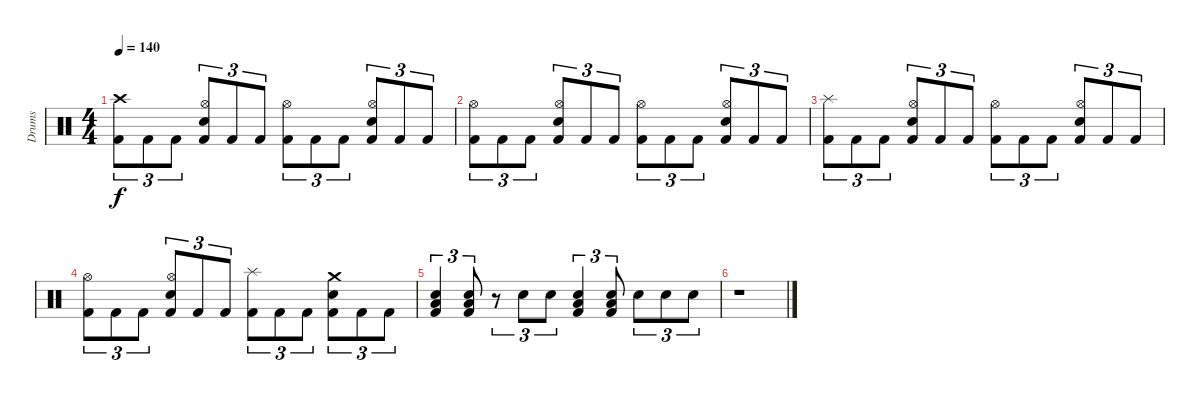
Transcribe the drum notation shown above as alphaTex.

\track ("Drums" "Drums") {instrument percussion}
\staff {score}
\articulation defaults
\ts (4 4)
\tempo 140
\clef neutral
\ks c
("Crash high (hit)" "Kick (hit) 2").8{tu (3 2) dy f} "Kick (hit) 2".8{tu (3 2)} "Kick (hit) 2".8{tu (3 2)} ("Hi-Hat (open)" "Electric Snare (hit)" "Kick (hit) 2").8{tu (3 2)} "Kick (hit) 2".8{tu (3 2)} "Kick (hit) 2".8{tu (3 2)} ("Hi-Hat (open)" "Kick (hit) 2").8{tu (3 2)} "Kick (hit) 2".8{tu (3 2)} "Kick (hit) 2".8{tu (3 2)} ("Hi-Hat (open)" "Electric Snare (hit)" "Kick (hit) 2").8{tu (3 2)} "Kick (hit) 2".8{tu (3 2)} "Kick (hit) 2".8{tu (3 2)} |
("Hi-Hat (open)" "Kick (hit) 2").8{tu (3 2)} "Kick (hit) 2".8{tu (3 2)} "Kick (hit) 2".8{tu (3 2)} ("Hi-Hat (open)" "Electric Snare (hit)" "Kick (hit) 2").8{tu (3 2)} "Kick (hit) 2".8{tu (3 2)} "Kick (hit) 2".8{tu (3 2)} ("Hi-Hat (open)" "Kick (hit) 2").8{tu (3 2)} "Kick (hit) 2".8{tu (3 2)} "Kick (hit) 2".8{tu (3 2)} ("Hi-Hat (open)" "Electric Snare (hit)" "Kick (hit) 2").8{tu (3 2)} "Kick (hit) 2".8{tu (3 2)} "Kick (hit) 2".8{tu (3 2)} |
("Splash (hit)" "Kick (hit) 2").8{tu (3 2)} "Kick (hit) 2".8{tu (3 2)} "Kick (hit) 2".8{tu (3 2)} ("Hi-Hat (open)" "Electric Snare (hit)" "Kick (hit) 2").8{tu (3 2)} "Kick (hit) 2".8{tu (3 2)} "Kick (hit) 2".8{tu (3 2)} ("Hi-Hat (open)" "Kick (hit) 2").8{tu (3 2)} "Kick (hit) 2".8{tu (3 2)} "Kick (hit) 2".8{tu (3 2)} ("Hi-Hat (open)" "Electric Snare (hit)" "Kick (hit) 2").8{tu (3 2)} "Kick (hit) 2".8{tu (3 2)} "Kick (hit) 2".8{tu (3 2)} |
("Hi-Hat (open)" "Kick (hit) 2").8{tu (3 2)} "Kick (hit) 2".8{tu (3 2)} "Kick (hit) 2".8{tu (3 2)} ("Hi-Hat (open)" "Electric Snare (hit)" "Kick (hit) 2").8{tu (3 2)} "Kick (hit) 2".8{tu (3 2)} "Kick (hit) 2".8{tu (3 2)} ("Splash (hit)" "Kick (hit) 2").8{tu (3 2)} "Kick (hit) 2".8{tu (3 2)} "Kick (hit) 2".8{tu (3 2)} ("Crash medium (hit)" "Electric Snare (hit)" "Kick (hit) 2").8{tu (3 2)} "Kick (hit) 2".8{tu (3 2)} "Kick (hit) 2".8{tu (3 2)} |
("Low Floor Tom (hit)" "Electric Snare (hit)" "Kick (hit) 2").4{tu (3 2)} ("Low Floor Tom (hit)" "Electric Snare (hit)" "Kick (hit) 2").8{tu (3 2)} r.8{tu (3 2)} "Electric Snare (hit)".8{tu (3 2)} "Electric Snare (hit)".8{tu (3 2)} ("Low Floor Tom (hit)" "Electric Snare (hit)" "Kick (hit) 2").4{tu (3 2)} ("Low Floor Tom (hit)" "Electric Snare (hit)" "Kick (hit) 2").8{tu (3 2)} "Electric Snare (hit)".8{tu (3 2)} "Electric Snare (hit)".8{tu (3 2)} "Electric Snare (hit)".8{tu (3 2)} |
r.1
